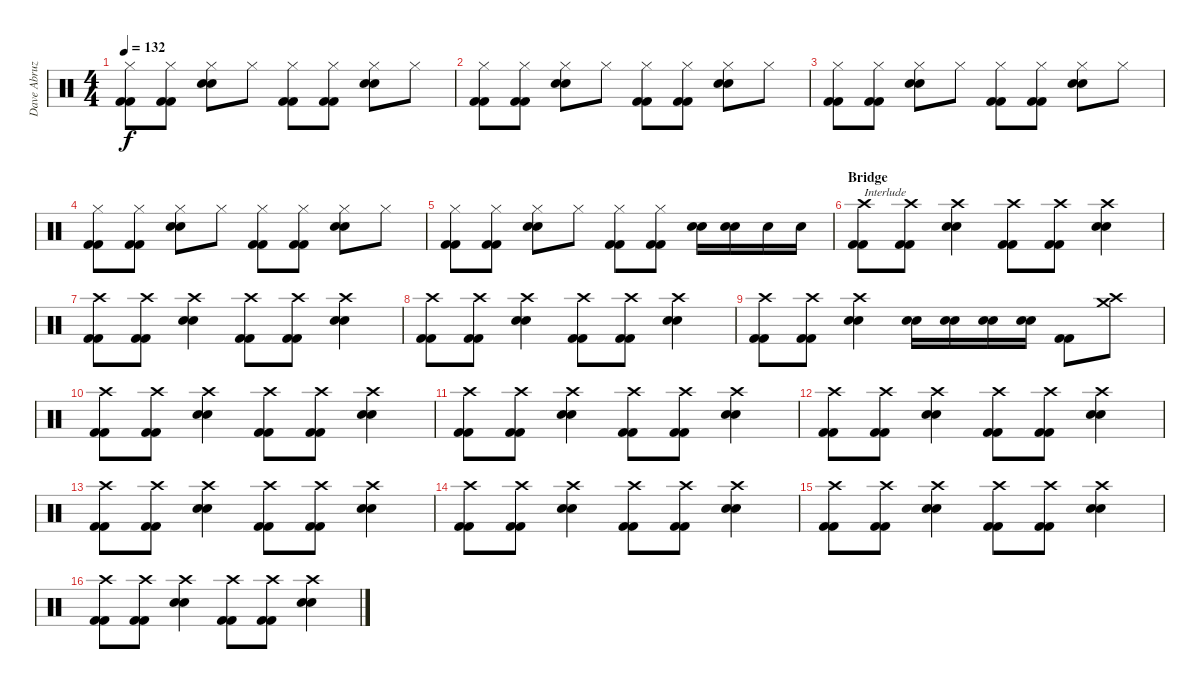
\track ("Dave Abruzzesse" "Dave Abruz") {instrument percussion}
\staff {score}
\articulation defaults
\ts (4 4)
\tempo 132
\clef neutral
\ks c
("Hi-Hat (closed)" "Kick (hit) 2" "Kick (hit) 2").8{dy f} ("Hi-Hat (closed)" "Kick (hit) 2" "Kick (hit) 2").8 ("Hi-Hat (closed)" "Snare (hit) 2" "Snare (hit) 2").8 "Hi-Hat (closed)".8 ("Hi-Hat (closed)" "Kick (hit) 2" "Kick (hit) 2").8 ("Hi-Hat (closed)" "Kick (hit) 2" "Kick (hit) 2").8 ("Hi-Hat (closed)" "Snare (hit) 2" "Snare (hit) 2").8 "Hi-Hat (closed)".8 |
("Hi-Hat (closed)" "Kick (hit) 2" "Kick (hit) 2").8 ("Hi-Hat (closed)" "Kick (hit) 2" "Kick (hit) 2").8 ("Hi-Hat (closed)" "Snare (hit) 2" "Snare (hit) 2").8 "Hi-Hat (closed)".8 ("Hi-Hat (closed)" "Kick (hit) 2" "Kick (hit) 2").8 ("Hi-Hat (closed)" "Kick (hit) 2" "Kick (hit) 2").8 ("Hi-Hat (closed)" "Snare (hit) 2" "Snare (hit) 2").8 "Hi-Hat (closed)".8 |
("Hi-Hat (closed)" "Kick (hit) 2" "Kick (hit) 2").8 ("Hi-Hat (closed)" "Kick (hit) 2" "Kick (hit) 2").8 ("Hi-Hat (closed)" "Snare (hit) 2" "Snare (hit) 2").8 "Hi-Hat (closed)".8 ("Hi-Hat (closed)" "Kick (hit) 2" "Kick (hit) 2").8 ("Hi-Hat (closed)" "Kick (hit) 2" "Kick (hit) 2").8 ("Hi-Hat (closed)" "Snare (hit) 2" "Snare (hit) 2").8 "Hi-Hat (closed)".8 |
("Hi-Hat (closed)" "Kick (hit) 2" "Kick (hit) 2").8 ("Hi-Hat (closed)" "Kick (hit) 2" "Kick (hit) 2").8 ("Hi-Hat (closed)" "Snare (hit) 2" "Snare (hit) 2").8 "Hi-Hat (closed)".8 ("Hi-Hat (closed)" "Kick (hit) 2" "Kick (hit) 2").8 ("Hi-Hat (closed)" "Kick (hit) 2" "Kick (hit) 2").8 ("Hi-Hat (closed)" "Snare (hit) 2" "Snare (hit) 2").8 "Hi-Hat (closed)".8 |
("Hi-Hat (closed)" "Kick (hit) 2" "Kick (hit) 2").8 ("Hi-Hat (closed)" "Kick (hit) 2" "Kick (hit) 2").8 ("Hi-Hat (closed)" "Snare (hit) 2" "Snare (hit) 2").8 "Hi-Hat (closed)".8 ("Hi-Hat (closed)" "Kick (hit) 2" "Kick (hit) 2").8 ("Hi-Hat (closed)" "Kick (hit) 2" "Kick (hit) 2").8 ("Snare (hit) 2" "Snare (hit) 2").16 ("Snare (hit) 2" "Snare (hit) 2").16 "Snare (hit) 2".16 "Snare (hit) 2".16 |
\section ("" "Bridge")
("Crash high (hit)" "Kick (hit) 2" "Kick (hit) 2").8{txt "Interlude"} ("Crash high (hit)" "Kick (hit) 2" "Kick (hit) 2").8 ("Crash high (hit)" "Snare (hit) 2" "Snare (hit) 2").4 ("Crash high (hit)" "Kick (hit) 2" "Kick (hit) 2").8 ("Crash high (hit)" "Kick (hit) 2" "Kick (hit) 2").8 ("Crash high (hit)" "Snare (hit) 2" "Snare (hit) 2").4 |
("Crash high (hit)" "Kick (hit) 2" "Kick (hit) 2").8 ("Crash high (hit)" "Kick (hit) 2" "Kick (hit) 2").8 ("Crash high (hit)" "Snare (hit) 2" "Snare (hit) 2").4 ("Crash high (hit)" "Kick (hit) 2" "Kick (hit) 2").8 ("Crash high (hit)" "Kick (hit) 2" "Kick (hit) 2").8 ("Crash high (hit)" "Snare (hit) 2" "Snare (hit) 2").4 |
("Crash high (hit)" "Kick (hit) 2" "Kick (hit) 2").8 ("Crash high (hit)" "Kick (hit) 2" "Kick (hit) 2").8 ("Crash high (hit)" "Snare (hit) 2" "Snare (hit) 2").4 ("Crash high (hit)" "Kick (hit) 2" "Kick (hit) 2").8 ("Crash high (hit)" "Kick (hit) 2" "Kick (hit) 2").8 ("Crash high (hit)" "Snare (hit) 2" "Snare (hit) 2").4 |
("Crash high (hit)" "Kick (hit) 2" "Kick (hit) 2").8 ("Crash high (hit)" "Kick (hit) 2" "Kick (hit) 2").8 ("Crash high (hit)" "Snare (hit) 2" "Snare (hit) 2").4 ("Snare (hit) 2" "Snare (hit) 2").16 ("Snare (hit) 2" "Snare (hit) 2").16 ("Snare (hit) 2" "Snare (hit) 2").16 ("Snare (hit) 2" "Snare (hit) 2").16 ("Kick (hit) 2" "Kick (hit) 2").8 ("Crash high (hit)" "Crash medium (hit)").8 |
("Crash high (hit)" "Kick (hit) 2" "Kick (hit) 2").8 ("Crash high (hit)" "Kick (hit) 2" "Kick (hit) 2").8 ("Crash high (hit)" "Snare (hit) 2" "Snare (hit) 2").4 ("Crash high (hit)" "Kick (hit) 2" "Kick (hit) 2").8 ("Crash high (hit)" "Kick (hit) 2" "Kick (hit) 2").8 ("Crash high (hit)" "Snare (hit) 2" "Snare (hit) 2").4 |
("Crash high (hit)" "Kick (hit) 2" "Kick (hit) 2").8 ("Crash high (hit)" "Kick (hit) 2" "Kick (hit) 2").8 ("Crash high (hit)" "Snare (hit) 2" "Snare (hit) 2").4 ("Crash high (hit)" "Kick (hit) 2" "Kick (hit) 2").8 ("Crash high (hit)" "Kick (hit) 2" "Kick (hit) 2").8 ("Crash high (hit)" "Snare (hit) 2" "Snare (hit) 2").4 |
("Crash high (hit)" "Kick (hit) 2" "Kick (hit) 2").8 ("Crash high (hit)" "Kick (hit) 2" "Kick (hit) 2").8 ("Crash high (hit)" "Snare (hit) 2" "Snare (hit) 2").4 ("Crash high (hit)" "Kick (hit) 2" "Kick (hit) 2").8 ("Crash high (hit)" "Kick (hit) 2" "Kick (hit) 2").8 ("Crash high (hit)" "Snare (hit) 2" "Snare (hit) 2").4 |
("Crash high (hit)" "Kick (hit) 2" "Kick (hit) 2").8 ("Crash high (hit)" "Kick (hit) 2" "Kick (hit) 2").8 ("Crash high (hit)" "Snare (hit) 2" "Snare (hit) 2").4 ("Crash high (hit)" "Kick (hit) 2" "Kick (hit) 2").8 ("Crash high (hit)" "Kick (hit) 2" "Kick (hit) 2").8 ("Crash high (hit)" "Snare (hit) 2" "Snare (hit) 2").4 |
("Crash high (hit)" "Kick (hit) 2" "Kick (hit) 2").8 ("Crash high (hit)" "Kick (hit) 2" "Kick (hit) 2").8 ("Crash high (hit)" "Snare (hit) 2" "Snare (hit) 2").4 ("Crash high (hit)" "Kick (hit) 2" "Kick (hit) 2").8 ("Crash high (hit)" "Kick (hit) 2" "Kick (hit) 2").8 ("Crash high (hit)" "Snare (hit) 2" "Snare (hit) 2").4 |
("Crash high (hit)" "Kick (hit) 2" "Kick (hit) 2").8 ("Crash high (hit)" "Kick (hit) 2" "Kick (hit) 2").8 ("Crash high (hit)" "Snare (hit) 2" "Snare (hit) 2").4 ("Crash high (hit)" "Kick (hit) 2" "Kick (hit) 2").8 ("Crash high (hit)" "Kick (hit) 2" "Kick (hit) 2").8 ("Crash high (hit)" "Snare (hit) 2" "Snare (hit) 2").4 |
("Crash high (hit)" "Kick (hit) 2" "Kick (hit) 2").8 ("Crash high (hit)" "Kick (hit) 2" "Kick (hit) 2").8 ("Crash high (hit)" "Snare (hit) 2" "Snare (hit) 2").4 ("Crash high (hit)" "Kick (hit) 2" "Kick (hit) 2").8 ("Crash high (hit)" "Kick (hit) 2" "Kick (hit) 2").8 ("Crash high (hit)" "Snare (hit) 2" "Snare (hit) 2").4
